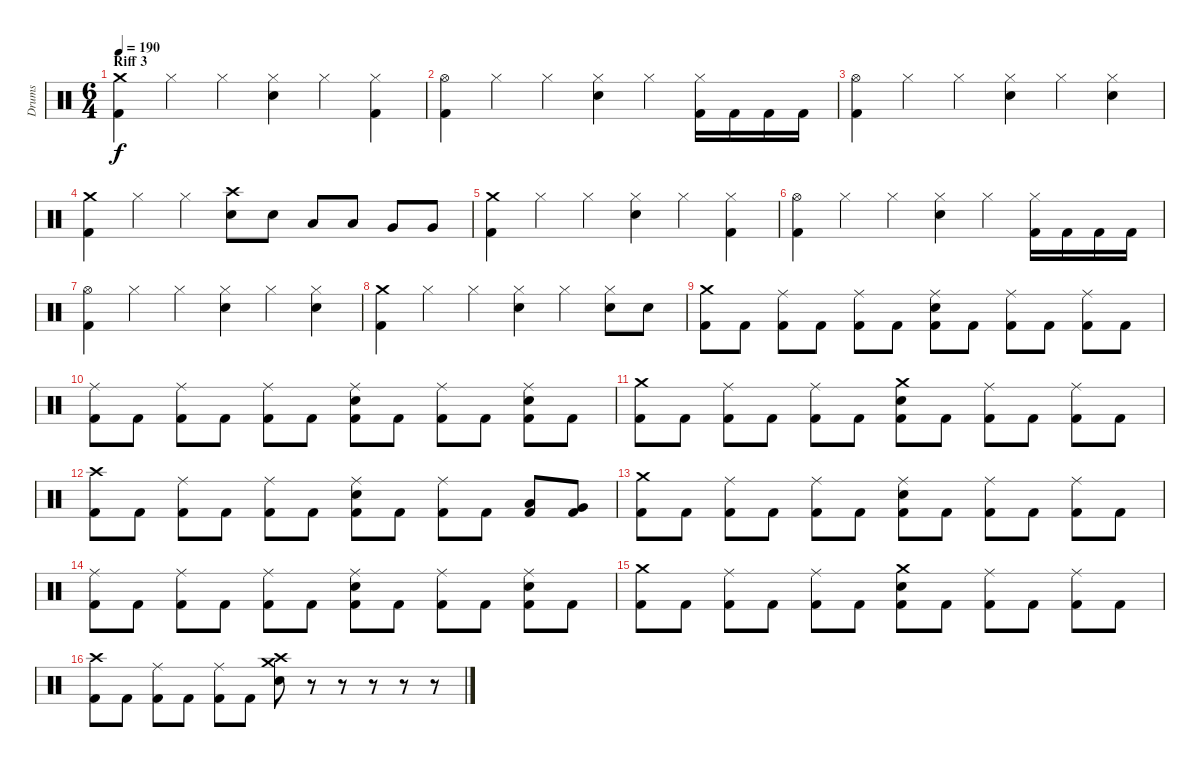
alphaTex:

\track ("Drums" "Drums") {instrument percussion}
\staff {score}
\articulation defaults
\ts (6 4)
\section ("" "Riff 3")
\tempo 190
\clef neutral
\ks c
("Crash medium (hit)" "Kick (hit) 2").4{dy f} "Hi-Hat (closed)".4 "Hi-Hat (closed)".4 ("Hi-Hat (closed)" "Electric Snare (hit)").4 "Hi-Hat (closed)".4 ("Hi-Hat (closed)" "Kick (hit) 2").4 |
("Hi-Hat (open)" "Kick (hit) 2").4 "Hi-Hat (closed)".4 "Hi-Hat (closed)".4 ("Hi-Hat (closed)" "Electric Snare (hit)").4 "Hi-Hat (closed)".4 ("Hi-Hat (closed)" "Kick (hit) 2").16 "Kick (hit) 2".16 "Kick (hit) 2".16 "Kick (hit) 2".16 |
("Hi-Hat (open)" "Kick (hit) 2").4 "Hi-Hat (closed)".4 "Hi-Hat (closed)".4 ("Hi-Hat (closed)" "Electric Snare (hit)").4 "Hi-Hat (closed)".4 ("Hi-Hat (closed)" "Electric Snare (hit)").4 |
("Crash medium (hit)" "Kick (hit) 2").4 "Hi-Hat (closed)".4 "Hi-Hat (closed)".4 ("Crash high (hit)" "Electric Snare (hit)").8 "Electric Snare (hit)".8 "Low Tom (hit)".8 "Low Tom (hit)".8 "Very Low Tom (hit)".8 "Very Low Tom (hit)".8 |
("Crash medium (hit)" "Kick (hit) 2").4 "Hi-Hat (closed)".4 "Hi-Hat (closed)".4 ("Hi-Hat (closed)" "Electric Snare (hit)").4 "Hi-Hat (closed)".4 ("Hi-Hat (closed)" "Kick (hit) 2").4 |
("Hi-Hat (open)" "Kick (hit) 2").4 "Hi-Hat (closed)".4 "Hi-Hat (closed)".4 ("Hi-Hat (closed)" "Electric Snare (hit)").4 "Hi-Hat (closed)".4 ("Hi-Hat (closed)" "Kick (hit) 2").16 "Kick (hit) 2".16 "Kick (hit) 2".16 "Kick (hit) 2".16 |
("Hi-Hat (open)" "Kick (hit) 2").4 "Hi-Hat (closed)".4 "Hi-Hat (closed)".4 ("Hi-Hat (closed)" "Electric Snare (hit)").4 "Hi-Hat (closed)".4 ("Hi-Hat (closed)" "Electric Snare (hit)").4 |
("Crash medium (hit)" "Kick (hit) 2").4 "Hi-Hat (closed)".4 "Hi-Hat (closed)".4 ("Hi-Hat (closed)" "Electric Snare (hit)").4 "Hi-Hat (closed)".4 ("Hi-Hat (closed)" "Electric Snare (hit)").8 "Electric Snare (hit)".8 |
("Crash medium (hit)" "Kick (hit) 2").8 "Kick (hit) 2".8 ("Ride (middle)" "Kick (hit) 2").8 "Kick (hit) 2".8 ("Ride (middle)" "Kick (hit) 2").8 "Kick (hit) 2".8 ("Ride (middle)" "Electric Snare (hit)" "Kick (hit) 2").8 "Kick (hit) 2".8 ("Ride (middle)" "Kick (hit) 2").8 "Kick (hit) 2".8 ("Ride (middle)" "Kick (hit) 2").8 "Kick (hit) 2".8 |
("Ride (middle)" "Kick (hit) 2").8 "Kick (hit) 2".8 ("Ride (middle)" "Kick (hit) 2").8 "Kick (hit) 2".8 ("Ride (middle)" "Kick (hit) 2").8 "Kick (hit) 2".8 ("Ride (middle)" "Electric Snare (hit)" "Kick (hit) 2").8 "Kick (hit) 2".8 ("Ride (middle)" "Kick (hit) 2").8 "Kick (hit) 2".8 ("Ride (middle)" "Electric Snare (hit)" "Kick (hit) 2").8 "Kick (hit) 2".8 |
("Crash medium (hit)" "Kick (hit) 2").8 "Kick (hit) 2".8 ("Ride (middle)" "Kick (hit) 2").8 "Kick (hit) 2".8 ("Ride (middle)" "Kick (hit) 2").8 "Kick (hit) 2".8 ("Crash medium (hit)" "Electric Snare (hit)" "Kick (hit) 2").8 "Kick (hit) 2".8 ("Ride (middle)" "Kick (hit) 2").8 "Kick (hit) 2".8 ("Ride (middle)" "Kick (hit) 2").8 "Kick (hit) 2".8 |
("Crash high (hit)" "Kick (hit) 2").8 "Kick (hit) 2".8 ("Ride (middle)" "Kick (hit) 2").8 "Kick (hit) 2".8 ("Ride (middle)" "Kick (hit) 2").8 "Kick (hit) 2".8 ("Ride (middle)" "Electric Snare (hit)" "Kick (hit) 2").8 "Kick (hit) 2".8 ("Ride (middle)" "Kick (hit) 2").8 "Kick (hit) 2".8 ("Low Tom (hit)" "Kick (hit) 2").8 ("Very Low Tom (hit)" "Kick (hit) 2").8 |
("Crash medium (hit)" "Kick (hit) 2").8 "Kick (hit) 2".8 ("Ride (middle)" "Kick (hit) 2").8 "Kick (hit) 2".8 ("Ride (middle)" "Kick (hit) 2").8 "Kick (hit) 2".8 ("Ride (middle)" "Electric Snare (hit)" "Kick (hit) 2").8 "Kick (hit) 2".8 ("Ride (middle)" "Kick (hit) 2").8 "Kick (hit) 2".8 ("Ride (middle)" "Kick (hit) 2").8 "Kick (hit) 2".8 |
("Ride (middle)" "Kick (hit) 2").8 "Kick (hit) 2".8 ("Ride (middle)" "Kick (hit) 2").8 "Kick (hit) 2".8 ("Ride (middle)" "Kick (hit) 2").8 "Kick (hit) 2".8 ("Ride (middle)" "Electric Snare (hit)" "Kick (hit) 2").8 "Kick (hit) 2".8 ("Ride (middle)" "Kick (hit) 2").8 "Kick (hit) 2".8 ("Ride (middle)" "Electric Snare (hit)" "Kick (hit) 2").8 "Kick (hit) 2".8 |
("Crash medium (hit)" "Kick (hit) 2").8 "Kick (hit) 2".8 ("Ride (middle)" "Kick (hit) 2").8 "Kick (hit) 2".8 ("Ride (middle)" "Kick (hit) 2").8 "Kick (hit) 2".8 ("Crash medium (hit)" "Electric Snare (hit)" "Kick (hit) 2").8 "Kick (hit) 2".8 ("Ride (middle)" "Kick (hit) 2").8 "Kick (hit) 2".8 ("Ride (middle)" "Kick (hit) 2").8 "Kick (hit) 2".8 |
("Crash high (hit)" "Kick (hit) 2").8 "Kick (hit) 2".8 ("Ride (middle)" "Kick (hit) 2").8 "Kick (hit) 2".8 ("Ride (middle)" "Kick (hit) 2").8 "Kick (hit) 2".8 ("Crash high (hit)" "Crash medium (hit)" "Electric Snare (hit)").8 r.8 r.8 r.8 r.8 r.8
